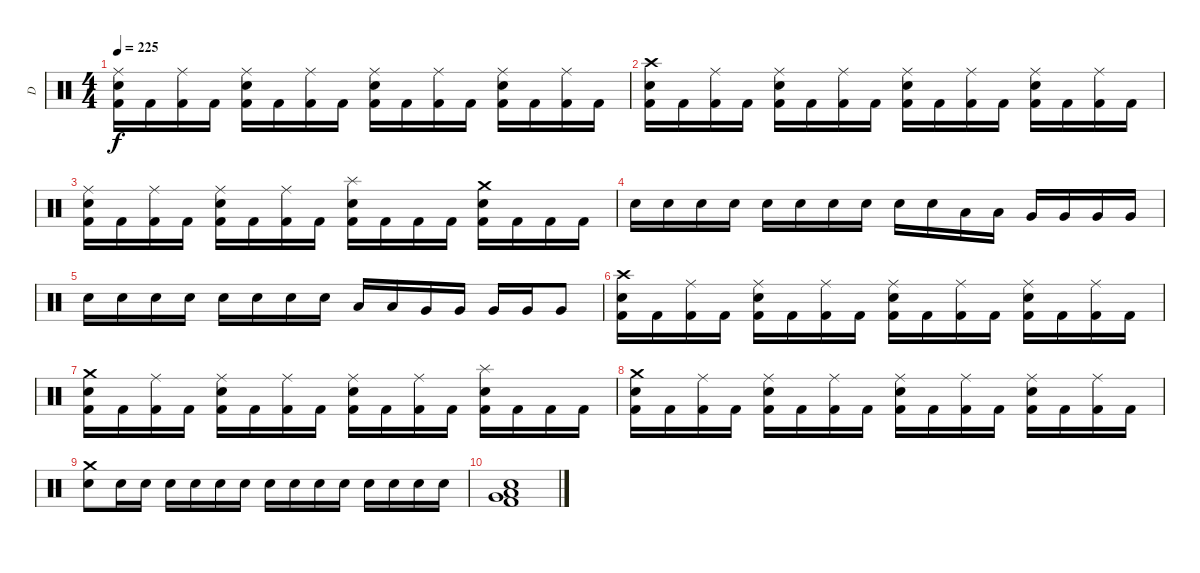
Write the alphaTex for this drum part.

\track ("D" "D") {instrument percussion}
\staff {score}
\articulation defaults
\ts (4 4)
\tempo 225
\clef neutral
\ks c
("Ride (middle)" "Electric Snare (hit)" "Kick (hit) 2").16{dy f} "Kick (hit) 2".16 ("Ride (middle)" "Kick (hit) 2").16 "Kick (hit) 2".16 ("Ride (middle)" "Electric Snare (hit)" "Kick (hit) 2").16 "Kick (hit) 2".16 ("Ride (middle)" "Kick (hit) 2").16 "Kick (hit) 2".16 ("Ride (middle)" "Electric Snare (hit)" "Kick (hit) 2").16 "Kick (hit) 2".16 ("Ride (middle)" "Kick (hit) 2").16 "Kick (hit) 2".16 ("Ride (middle)" "Electric Snare (hit)" "Kick (hit) 2").16 "Kick (hit) 2".16 ("Ride (middle)" "Kick (hit) 2").16 "Kick (hit) 2".16 |
("Crash high (hit)" "Electric Snare (hit)" "Kick (hit) 2").16 "Kick (hit) 2".16 ("Ride (middle)" "Kick (hit) 2").16 "Kick (hit) 2".16 ("Ride (middle)" "Electric Snare (hit)" "Kick (hit) 2").16 "Kick (hit) 2".16 ("Ride (middle)" "Kick (hit) 2").16 "Kick (hit) 2".16 ("Ride (middle)" "Electric Snare (hit)" "Kick (hit) 2").16 "Kick (hit) 2".16 ("Ride (middle)" "Kick (hit) 2").16 "Kick (hit) 2".16 ("Ride (middle)" "Electric Snare (hit)" "Kick (hit) 2").16 "Kick (hit) 2".16 ("Ride (middle)" "Kick (hit) 2").16 "Kick (hit) 2".16 |
("Ride (middle)" "Electric Snare (hit)" "Kick (hit) 2").16 "Kick (hit) 2".16 ("Ride (middle)" "Kick (hit) 2").16 "Kick (hit) 2".16 ("Ride (middle)" "Electric Snare (hit)" "Kick (hit) 2").16 "Kick (hit) 2".16 ("Ride (middle)" "Kick (hit) 2").16 "Kick (hit) 2".16 ("Splash (hit)" "Electric Snare (hit)" "Kick (hit) 2").16 "Kick (hit) 2".16 "Kick (hit) 2".16 "Kick (hit) 2".16 ("Crash medium (hit)" "Electric Snare (hit)" "Kick (hit) 2").16 "Kick (hit) 2".16 "Kick (hit) 2".16 "Kick (hit) 2".16 |
"Electric Snare (hit)".16 "Electric Snare (hit)".16 "Electric Snare (hit)".16 "Electric Snare (hit)".16 "Electric Snare (hit)".16 "Electric Snare (hit)".16 "Electric Snare (hit)".16 "Electric Snare (hit)".16 "Electric Snare (hit)".16 "Electric Snare (hit)".16 "Low Tom (hit)".16 "Low Tom (hit)".16 "Very Low Tom (hit)".16 "Very Low Tom (hit)".16 "Very Low Tom (hit)".16 "Very Low Tom (hit)".16 |
"Electric Snare (hit)".16 "Electric Snare (hit)".16 "Electric Snare (hit)".16 "Electric Snare (hit)".16 "Electric Snare (hit)".16 "Electric Snare (hit)".16 "Electric Snare (hit)".16 "Electric Snare (hit)".16 "Low Tom (hit)".16 "Low Tom (hit)".16 "Very Low Tom (hit)".16 "Very Low Tom (hit)".16 "Very Low Tom (hit)".16 "Very Low Tom (hit)".16 "Very Low Tom (hit)".8 |
("Crash high (hit)" "Electric Snare (hit)" "Kick (hit) 2").16 "Kick (hit) 2".16 ("Ride (middle)" "Kick (hit) 2").16 "Kick (hit) 2".16 ("Ride (middle)" "Electric Snare (hit)" "Kick (hit) 2").16 "Kick (hit) 2".16 ("Ride (middle)" "Kick (hit) 2").16 "Kick (hit) 2".16 ("Ride (middle)" "Electric Snare (hit)" "Kick (hit) 2").16 "Kick (hit) 2".16 ("Ride (middle)" "Kick (hit) 2").16 "Kick (hit) 2".16 ("Ride (middle)" "Electric Snare (hit)" "Kick (hit) 2").16 "Kick (hit) 2".16 ("Ride (middle)" "Kick (hit) 2").16 "Kick (hit) 2".16 |
("Crash medium (hit)" "Electric Snare (hit)" "Kick (hit) 2").16 "Kick (hit) 2".16 ("Ride (middle)" "Kick (hit) 2").16 "Kick (hit) 2".16 ("Ride (middle)" "Electric Snare (hit)" "Kick (hit) 2").16 "Kick (hit) 2".16 ("Ride (middle)" "Kick (hit) 2").16 "Kick (hit) 2".16 ("Ride (middle)" "Electric Snare (hit)" "Kick (hit) 2").16 "Kick (hit) 2".16 ("Ride (middle)" "Kick (hit) 2").16 "Kick (hit) 2".16 ("Splash (hit)" "Electric Snare (hit)" "Kick (hit) 2").16 "Kick (hit) 2".16 "Kick (hit) 2".16 "Kick (hit) 2".16 |
("Crash medium (hit)" "Electric Snare (hit)" "Kick (hit) 2").16 "Kick (hit) 2".16 ("Ride (middle)" "Kick (hit) 2").16 "Kick (hit) 2".16 ("Ride (middle)" "Electric Snare (hit)" "Kick (hit) 2").16 "Kick (hit) 2".16 ("Ride (middle)" "Kick (hit) 2").16 "Kick (hit) 2".16 ("Ride (middle)" "Electric Snare (hit)" "Kick (hit) 2").16 "Kick (hit) 2".16 ("Ride (middle)" "Kick (hit) 2").16 "Kick (hit) 2".16 ("Ride (middle)" "Electric Snare (hit)" "Kick (hit) 2").16 "Kick (hit) 2".16 ("Ride (middle)" "Kick (hit) 2").16 "Kick (hit) 2".16 |
("Crash medium (hit)" "Electric Snare (hit)").8 "Electric Snare (hit)".16 "Electric Snare (hit)".16 "Electric Snare (hit)".16 "Electric Snare (hit)".16 "Electric Snare (hit)".16 "Electric Snare (hit)".16 "Electric Snare (hit)".16 "Electric Snare (hit)".16 "Electric Snare (hit)".16 "Electric Snare (hit)".16 "Electric Snare (hit)".16 "Electric Snare (hit)".16 "Electric Snare (hit)".16 "Electric Snare (hit)".16 |
("Very Low Tom (hit)" "Low Floor Tom (hit)" "Kick (hit) 2" "Electric Snare (hit)").1
